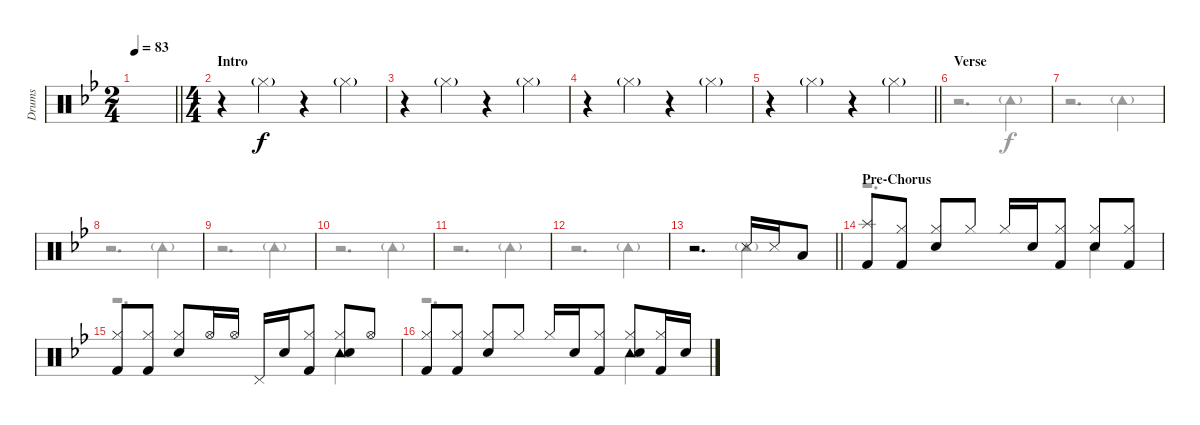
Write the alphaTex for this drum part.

\track ("Drums" "Drums") {instrument percussion}
\staff {score}
\articulation defaults
\voice
\ts (2 4)
\tempo 83
\clef neutral
\barLineRight lightlight
\ks bb
|
\ts (4 4)
\section ("" "Intro")
r.4 "Hi-Hat (closed)"{g}.4 r.4 "Hi-Hat (closed)"{g}.4 |
r.4 "Hi-Hat (closed)"{g}.4 r.4 "Hi-Hat (closed)"{g}.4 |
r.4 "Hi-Hat (closed)"{g}.4 r.4 "Hi-Hat (closed)"{g}.4 |
\barLineRight lightlight
r.4 "Hi-Hat (closed)"{g}.4 r.4 "Hi-Hat (closed)"{g}.4 |
\section ("" "Verse")
|
|
|
|
|
|
|
\barLineRight lightlight
r.2{d} "Snare (side stick) 3".16{dy f} "Snare (side stick) 3".16 "Low Tom (hit)".8 |
\section ("" "Pre-Chorus")
("Splash (hit)" "Kick (hit) 2").8 ("Hi-Hat (closed)" "Kick (hit) 2").8 ("Hi-Hat (closed)" "Electric Snare (hit)").8 "Hi-Hat (closed)".8 "Hi-Hat (closed)".16 "Electric Snare (hit)".16 ("Hi-Hat (closed)" "Kick (hit) 2").8 ("Hi-Hat (closed)" "Electric Snare (hit)").8 ("Hi-Hat (closed)" "Kick (hit) 2").8 |
("Hi-Hat (closed)" "Kick (hit) 2").8 ("Hi-Hat (closed)" "Kick (hit) 2").8 ("Hi-Hat (closed)" "Electric Snare (hit)").8 "Hi-Hat (open)".16 "Hi-Hat (open)".16 "Pedal Hi-Hat (hit)".16 "Electric Snare (hit)".16 ("Hi-Hat (closed)" "Kick (hit) 2").8 ("Hi-Hat (closed)" "Tambourine (hit)" "Electric Snare (hit)").8 "Hi-Hat (open)".8 |
("Hi-Hat (closed)" "Kick (hit) 2").8 ("Hi-Hat (closed)" "Kick (hit) 2").8 ("Hi-Hat (closed)" "Electric Snare (hit)").8 "Hi-Hat (closed)".8 "Hi-Hat (closed)".16 "Electric Snare (hit)".16 ("Hi-Hat (closed)" "Kick (hit) 2").8 ("Hi-Hat (closed)" "Tambourine (hit)" "Electric Snare (hit)").8 ("Hi-Hat (closed)" "Kick (hit) 2").16 "Electric Snare (hit)".16
\voice
\clef neutral
\ottava regular
\simile none
\barLineRight lightlight
\ks bb
|
|
|
|
\barLineRight lightlight
|
r.2{d} "Tambourine (hit)"{g}.4 |
r.2{d} "Tambourine (hit)"{g}.4 |
r.2{d} "Tambourine (hit)"{g}.4 |
r.2{d} "Tambourine (hit)"{g}.4 |
r.2{d} "Tambourine (hit)"{g}.4 |
r.2{d} "Tambourine (hit)"{g}.4 |
r.2{d} "Tambourine (hit)"{g}.4 |
\barLineRight lightlight
r.2{d} "Tambourine (hit)"{g}.4 |
r.2{d} "Tambourine (hit)".4{dy f} |
r.2{d} "Tambourine (hit)".4 |
r.2{d} "Tambourine (hit)".4
